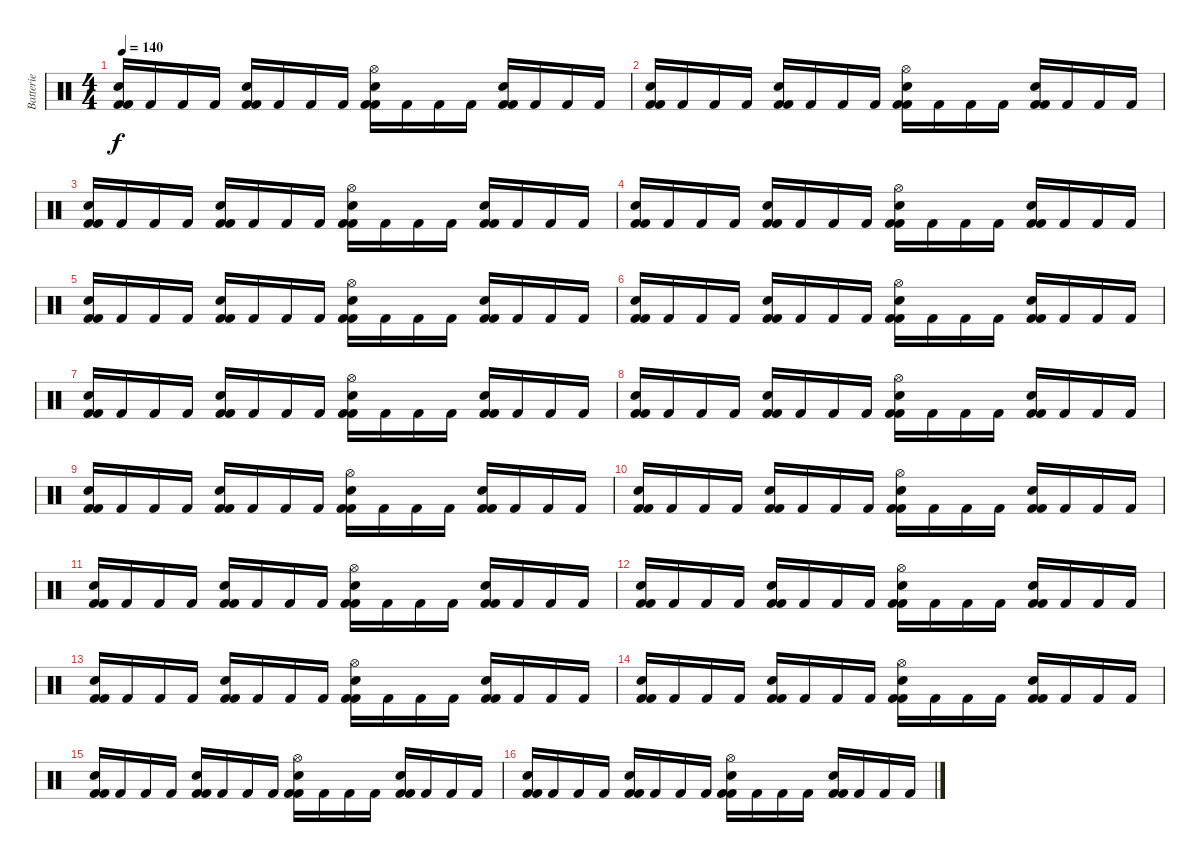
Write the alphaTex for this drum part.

\track ("Batterie" "Batterie") {instrument percussion}
\staff {score}
\articulation defaults
\ts (4 4)
\tempo 140
\clef neutral
\ks c
("Electric Snare (hit)" "Kick (hit) 2" "Kick (hit) 2").16{dy f} "Kick (hit) 2".16 "Kick (hit) 2".16 "Kick (hit) 2".16 ("Snare (hit) 2" "Kick (hit) 2" "Kick (hit) 2").16 "Kick (hit) 2".16 "Kick (hit) 2".16 "Kick (hit) 2".16 ("Hi-Hat (open)" "Electric Snare (hit)" "Kick (hit) 2" "Kick (hit) 2").16 "Kick (hit) 2".16 "Kick (hit) 2".16 "Kick (hit) 2".16 ("Electric Snare (hit)" "Kick (hit) 2" "Kick (hit) 2").16 "Kick (hit) 2".16 "Kick (hit) 2".16 "Kick (hit) 2".16 |
("Electric Snare (hit)" "Kick (hit) 2" "Kick (hit) 2").16 "Kick (hit) 2".16 "Kick (hit) 2".16 "Kick (hit) 2".16 ("Snare (hit) 2" "Kick (hit) 2" "Kick (hit) 2").16 "Kick (hit) 2".16 "Kick (hit) 2".16 "Kick (hit) 2".16 ("Hi-Hat (open)" "Electric Snare (hit)" "Kick (hit) 2" "Kick (hit) 2").16 "Kick (hit) 2".16 "Kick (hit) 2".16 "Kick (hit) 2".16 ("Electric Snare (hit)" "Kick (hit) 2" "Kick (hit) 2").16 "Kick (hit) 2".16 "Kick (hit) 2".16 "Kick (hit) 2".16 |
("Electric Snare (hit)" "Kick (hit) 2" "Kick (hit) 2").16 "Kick (hit) 2".16 "Kick (hit) 2".16 "Kick (hit) 2".16 ("Snare (hit) 2" "Kick (hit) 2" "Kick (hit) 2").16 "Kick (hit) 2".16 "Kick (hit) 2".16 "Kick (hit) 2".16 ("Hi-Hat (open)" "Electric Snare (hit)" "Kick (hit) 2" "Kick (hit) 2").16 "Kick (hit) 2".16 "Kick (hit) 2".16 "Kick (hit) 2".16 ("Electric Snare (hit)" "Kick (hit) 2" "Kick (hit) 2").16 "Kick (hit) 2".16 "Kick (hit) 2".16 "Kick (hit) 2".16 |
("Electric Snare (hit)" "Kick (hit) 2" "Kick (hit) 2").16 "Kick (hit) 2".16 "Kick (hit) 2".16 "Kick (hit) 2".16 ("Snare (hit) 2" "Kick (hit) 2" "Kick (hit) 2").16 "Kick (hit) 2".16 "Kick (hit) 2".16 "Kick (hit) 2".16 ("Hi-Hat (open)" "Electric Snare (hit)" "Kick (hit) 2" "Kick (hit) 2").16 "Kick (hit) 2".16 "Kick (hit) 2".16 "Kick (hit) 2".16 ("Electric Snare (hit)" "Kick (hit) 2" "Kick (hit) 2").16 "Kick (hit) 2".16 "Kick (hit) 2".16 "Kick (hit) 2".16 |
("Electric Snare (hit)" "Kick (hit) 2" "Kick (hit) 2").16 "Kick (hit) 2".16 "Kick (hit) 2".16 "Kick (hit) 2".16 ("Snare (hit) 2" "Kick (hit) 2" "Kick (hit) 2").16 "Kick (hit) 2".16 "Kick (hit) 2".16 "Kick (hit) 2".16 ("Hi-Hat (open)" "Electric Snare (hit)" "Kick (hit) 2" "Kick (hit) 2").16 "Kick (hit) 2".16 "Kick (hit) 2".16 "Kick (hit) 2".16 ("Electric Snare (hit)" "Kick (hit) 2" "Kick (hit) 2").16 "Kick (hit) 2".16 "Kick (hit) 2".16 "Kick (hit) 2".16 |
("Electric Snare (hit)" "Kick (hit) 2" "Kick (hit) 2").16 "Kick (hit) 2".16 "Kick (hit) 2".16 "Kick (hit) 2".16 ("Snare (hit) 2" "Kick (hit) 2" "Kick (hit) 2").16 "Kick (hit) 2".16 "Kick (hit) 2".16 "Kick (hit) 2".16 ("Hi-Hat (open)" "Electric Snare (hit)" "Kick (hit) 2" "Kick (hit) 2").16 "Kick (hit) 2".16 "Kick (hit) 2".16 "Kick (hit) 2".16 ("Electric Snare (hit)" "Kick (hit) 2" "Kick (hit) 2").16 "Kick (hit) 2".16 "Kick (hit) 2".16 "Kick (hit) 2".16 |
("Electric Snare (hit)" "Kick (hit) 2" "Kick (hit) 2").16 "Kick (hit) 2".16 "Kick (hit) 2".16 "Kick (hit) 2".16 ("Snare (hit) 2" "Kick (hit) 2" "Kick (hit) 2").16 "Kick (hit) 2".16 "Kick (hit) 2".16 "Kick (hit) 2".16 ("Hi-Hat (open)" "Electric Snare (hit)" "Kick (hit) 2" "Kick (hit) 2").16 "Kick (hit) 2".16 "Kick (hit) 2".16 "Kick (hit) 2".16 ("Electric Snare (hit)" "Kick (hit) 2" "Kick (hit) 2").16 "Kick (hit) 2".16 "Kick (hit) 2".16 "Kick (hit) 2".16 |
("Electric Snare (hit)" "Kick (hit) 2" "Kick (hit) 2").16 "Kick (hit) 2".16 "Kick (hit) 2".16 "Kick (hit) 2".16 ("Snare (hit) 2" "Kick (hit) 2" "Kick (hit) 2").16 "Kick (hit) 2".16 "Kick (hit) 2".16 "Kick (hit) 2".16 ("Hi-Hat (open)" "Electric Snare (hit)" "Kick (hit) 2" "Kick (hit) 2").16 "Kick (hit) 2".16 "Kick (hit) 2".16 "Kick (hit) 2".16 ("Electric Snare (hit)" "Kick (hit) 2" "Kick (hit) 2").16 "Kick (hit) 2".16 "Kick (hit) 2".16 "Kick (hit) 2".16 |
("Electric Snare (hit)" "Kick (hit) 2" "Kick (hit) 2").16 "Kick (hit) 2".16 "Kick (hit) 2".16 "Kick (hit) 2".16 ("Snare (hit) 2" "Kick (hit) 2" "Kick (hit) 2").16 "Kick (hit) 2".16 "Kick (hit) 2".16 "Kick (hit) 2".16 ("Hi-Hat (open)" "Electric Snare (hit)" "Kick (hit) 2" "Kick (hit) 2").16 "Kick (hit) 2".16 "Kick (hit) 2".16 "Kick (hit) 2".16 ("Electric Snare (hit)" "Kick (hit) 2" "Kick (hit) 2").16 "Kick (hit) 2".16 "Kick (hit) 2".16 "Kick (hit) 2".16 |
("Electric Snare (hit)" "Kick (hit) 2" "Kick (hit) 2").16 "Kick (hit) 2".16 "Kick (hit) 2".16 "Kick (hit) 2".16 ("Snare (hit) 2" "Kick (hit) 2" "Kick (hit) 2").16 "Kick (hit) 2".16 "Kick (hit) 2".16 "Kick (hit) 2".16 ("Hi-Hat (open)" "Electric Snare (hit)" "Kick (hit) 2" "Kick (hit) 2").16 "Kick (hit) 2".16 "Kick (hit) 2".16 "Kick (hit) 2".16 ("Electric Snare (hit)" "Kick (hit) 2" "Kick (hit) 2").16 "Kick (hit) 2".16 "Kick (hit) 2".16 "Kick (hit) 2".16 |
("Electric Snare (hit)" "Kick (hit) 2" "Kick (hit) 2").16 "Kick (hit) 2".16 "Kick (hit) 2".16 "Kick (hit) 2".16 ("Snare (hit) 2" "Kick (hit) 2" "Kick (hit) 2").16 "Kick (hit) 2".16 "Kick (hit) 2".16 "Kick (hit) 2".16 ("Hi-Hat (open)" "Electric Snare (hit)" "Kick (hit) 2" "Kick (hit) 2").16 "Kick (hit) 2".16 "Kick (hit) 2".16 "Kick (hit) 2".16 ("Electric Snare (hit)" "Kick (hit) 2" "Kick (hit) 2").16 "Kick (hit) 2".16 "Kick (hit) 2".16 "Kick (hit) 2".16 |
("Electric Snare (hit)" "Kick (hit) 2" "Kick (hit) 2").16 "Kick (hit) 2".16 "Kick (hit) 2".16 "Kick (hit) 2".16 ("Snare (hit) 2" "Kick (hit) 2" "Kick (hit) 2").16 "Kick (hit) 2".16 "Kick (hit) 2".16 "Kick (hit) 2".16 ("Hi-Hat (open)" "Electric Snare (hit)" "Kick (hit) 2" "Kick (hit) 2").16 "Kick (hit) 2".16 "Kick (hit) 2".16 "Kick (hit) 2".16 ("Electric Snare (hit)" "Kick (hit) 2" "Kick (hit) 2").16 "Kick (hit) 2".16 "Kick (hit) 2".16 "Kick (hit) 2".16 |
("Electric Snare (hit)" "Kick (hit) 2" "Kick (hit) 2").16 "Kick (hit) 2".16 "Kick (hit) 2".16 "Kick (hit) 2".16 ("Snare (hit) 2" "Kick (hit) 2" "Kick (hit) 2").16 "Kick (hit) 2".16 "Kick (hit) 2".16 "Kick (hit) 2".16 ("Hi-Hat (open)" "Electric Snare (hit)" "Kick (hit) 2" "Kick (hit) 2").16 "Kick (hit) 2".16 "Kick (hit) 2".16 "Kick (hit) 2".16 ("Electric Snare (hit)" "Kick (hit) 2" "Kick (hit) 2").16 "Kick (hit) 2".16 "Kick (hit) 2".16 "Kick (hit) 2".16 |
("Electric Snare (hit)" "Kick (hit) 2" "Kick (hit) 2").16 "Kick (hit) 2".16 "Kick (hit) 2".16 "Kick (hit) 2".16 ("Snare (hit) 2" "Kick (hit) 2" "Kick (hit) 2").16 "Kick (hit) 2".16 "Kick (hit) 2".16 "Kick (hit) 2".16 ("Hi-Hat (open)" "Electric Snare (hit)" "Kick (hit) 2" "Kick (hit) 2").16 "Kick (hit) 2".16 "Kick (hit) 2".16 "Kick (hit) 2".16 ("Electric Snare (hit)" "Kick (hit) 2" "Kick (hit) 2").16 "Kick (hit) 2".16 "Kick (hit) 2".16 "Kick (hit) 2".16 |
("Electric Snare (hit)" "Kick (hit) 2" "Kick (hit) 2").16 "Kick (hit) 2".16 "Kick (hit) 2".16 "Kick (hit) 2".16 ("Snare (hit) 2" "Kick (hit) 2" "Kick (hit) 2").16 "Kick (hit) 2".16 "Kick (hit) 2".16 "Kick (hit) 2".16 ("Hi-Hat (open)" "Electric Snare (hit)" "Kick (hit) 2" "Kick (hit) 2").16 "Kick (hit) 2".16 "Kick (hit) 2".16 "Kick (hit) 2".16 ("Electric Snare (hit)" "Kick (hit) 2" "Kick (hit) 2").16 "Kick (hit) 2".16 "Kick (hit) 2".16 "Kick (hit) 2".16 |
("Electric Snare (hit)" "Kick (hit) 2" "Kick (hit) 2").16 "Kick (hit) 2".16 "Kick (hit) 2".16 "Kick (hit) 2".16 ("Snare (hit) 2" "Kick (hit) 2" "Kick (hit) 2").16 "Kick (hit) 2".16 "Kick (hit) 2".16 "Kick (hit) 2".16 ("Hi-Hat (open)" "Electric Snare (hit)" "Kick (hit) 2" "Kick (hit) 2").16 "Kick (hit) 2".16 "Kick (hit) 2".16 "Kick (hit) 2".16 ("Electric Snare (hit)" "Kick (hit) 2" "Kick (hit) 2").16 "Kick (hit) 2".16 "Kick (hit) 2".16 "Kick (hit) 2".16
